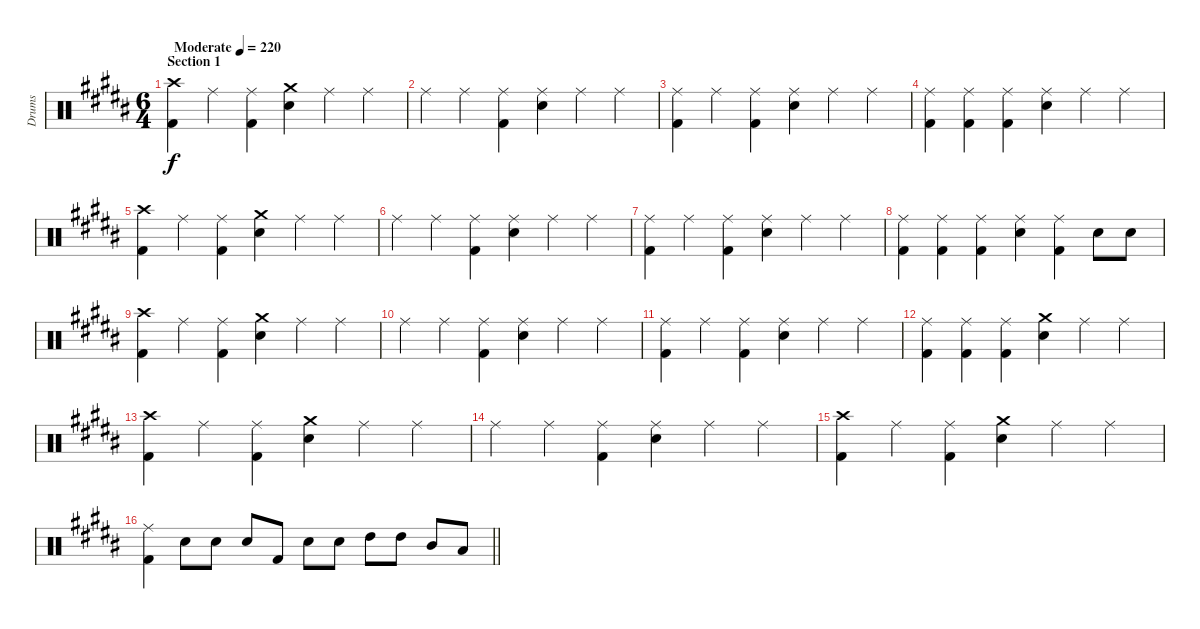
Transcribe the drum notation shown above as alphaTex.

\track ("Drums" "Drums") {instrument percussion}
\staff {score}
\articulation defaults
\ts (6 4)
\section ("" "Section 1")
\tempo (220 "Moderate")
\clef neutral
\ks g#minor
("Crash high (hit)" "Kick (hit) 2").4{dy f} "Ride (middle)".4 ("Ride (middle)" "Kick (hit) 2").4 ("Crash medium (hit)" "Electric Snare (hit)").4 "Ride (middle)".4 "Ride (middle)".4 |
"Ride (middle)".4 "Ride (middle)".4 ("Ride (middle)" "Kick (hit) 2").4 ("Ride (middle)" "Electric Snare (hit)").4 "Ride (middle)".4 "Ride (middle)".4 |
("Ride (middle)" "Kick (hit) 2").4 "Ride (middle)".4 ("Ride (middle)" "Kick (hit) 2").4 ("Ride (middle)" "Electric Snare (hit)").4 "Ride (middle)".4 "Ride (middle)".4 |
("Ride (middle)" "Kick (hit) 2").4 ("Ride (middle)" "Kick (hit) 2").4 ("Ride (middle)" "Kick (hit) 2").4 ("Ride (middle)" "Electric Snare (hit)").4 "Ride (middle)".4 "Ride (middle)".4 |
("Crash high (hit)" "Kick (hit) 2").4 "Ride (middle)".4 ("Ride (middle)" "Kick (hit) 2").4 ("Crash medium (hit)" "Electric Snare (hit)").4 "Ride (middle)".4 "Ride (middle)".4 |
"Ride (middle)".4 "Ride (middle)".4 ("Ride (middle)" "Kick (hit) 2").4 ("Ride (middle)" "Electric Snare (hit)").4 "Ride (middle)".4 "Ride (middle)".4 |
("Ride (middle)" "Kick (hit) 2").4 "Ride (middle)".4 ("Ride (middle)" "Kick (hit) 2").4 ("Ride (middle)" "Electric Snare (hit)").4 "Ride (middle)".4 "Ride (middle)".4 |
("Ride (middle)" "Kick (hit) 2").4 ("Ride (middle)" "Kick (hit) 2").4 ("Ride (middle)" "Kick (hit) 2").4 ("Ride (middle)" "Electric Snare (hit)").4 ("Ride (middle)" "Kick (hit) 2").4 "Electric Snare (hit)".8 "Electric Snare (hit)".8 |
("Crash high (hit)" "Kick (hit) 2").4 "Ride (middle)".4 ("Ride (middle)" "Kick (hit) 2").4 ("Crash medium (hit)" "Electric Snare (hit)").4 "Ride (middle)".4 "Ride (middle)".4 |
"Ride (middle)".4 "Ride (middle)".4 ("Ride (middle)" "Kick (hit) 2").4 ("Ride (middle)" "Electric Snare (hit)").4 "Ride (middle)".4 "Ride (middle)".4 |
("Ride (middle)" "Kick (hit) 2").4 "Ride (middle)".4 ("Ride (middle)" "Kick (hit) 2").4 ("Ride (middle)" "Electric Snare (hit)").4 "Ride (middle)".4 "Ride (middle)".4 |
("Ride (middle)" "Kick (hit) 2").4 ("Ride (middle)" "Kick (hit) 2").4 ("Ride (middle)" "Kick (hit) 2").4 ("Crash medium (hit)" "Electric Snare (hit)").4 "Ride (middle)".4 "Ride (middle)".4 |
("Crash high (hit)" "Kick (hit) 2").4 "Ride (middle)".4 ("Ride (middle)" "Kick (hit) 2").4 ("Crash medium (hit)" "Electric Snare (hit)").4 "Ride (middle)".4 "Ride (middle)".4 |
"Ride (middle)".4 "Ride (middle)".4 ("Ride (middle)" "Kick (hit) 2").4 ("Ride (middle)" "Electric Snare (hit)").4 "Ride (middle)".4 "Ride (middle)".4 |
("Crash high (hit)" "Kick (hit) 2").4 "Ride (middle)".4 ("Ride (middle)" "Kick (hit) 2").4 ("Crash medium (hit)" "Electric Snare (hit)").4 "Ride (middle)".4 "Ride (middle)".4 |
\barLineRight lightlight
("Ride (middle)" "Kick (hit) 2").4 "Electric Snare (hit)".8 "Electric Snare (hit)".8 "Electric Snare (hit)".8 "Kick (hit) 2".8 "Electric Snare (hit)".8 "Electric Snare (hit)".8 "High Tom (hit)".8 "High Tom (hit)".8 "Mid Tom (hit)".8 "Low Tom (hit)".8
